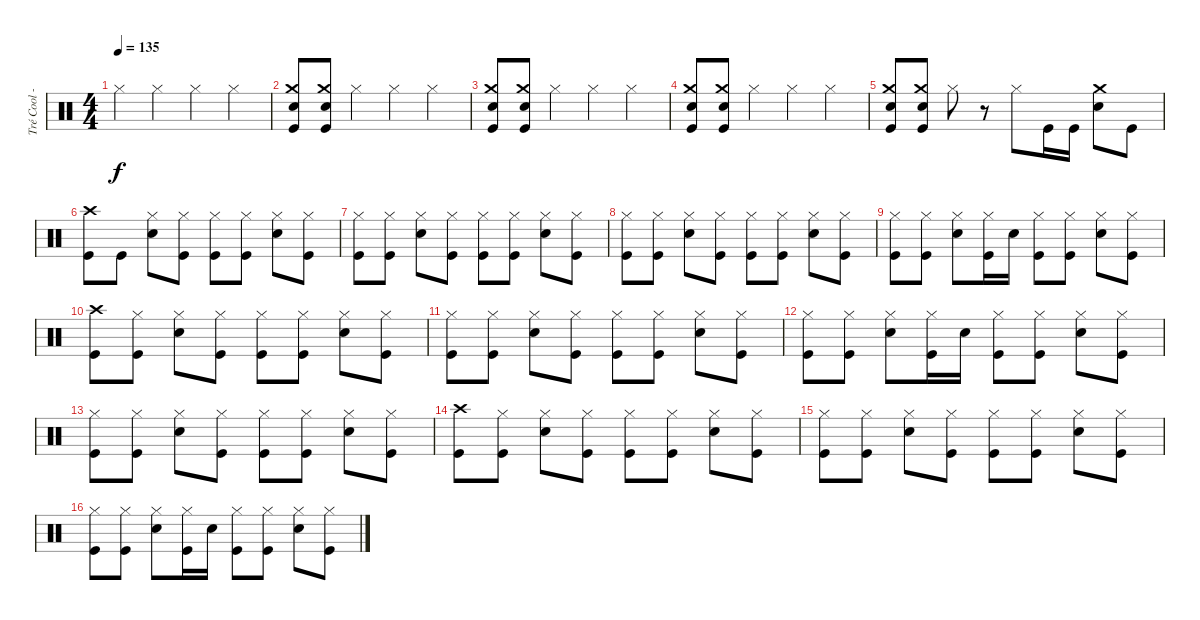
\track ("Tré Cool - Drums" "Tré Cool -") {instrument percussion}
\staff {score}
\articulation defaults
\ts (4 4)
\tempo 135
\clef neutral
\ks c "Hi-Hat (closed)".4{dy f} "Hi-Hat (closed)".4 "Hi-Hat (closed)".4 "Hi-Hat (closed)".4
|
("Electric Snare (hit)" "Crash medium (hit)" "Kick (hit)").8 ("Electric Snare (hit)" "Crash medium (hit)" "Kick (hit)").8 "Hi-Hat (closed)".4 "Hi-Hat (closed)".4 "Hi-Hat (closed)".4 |
("Electric Snare (hit)" "Crash medium (hit)" "Kick (hit)").8 ("Electric Snare (hit)" "Crash medium (hit)" "Kick (hit)").8 "Hi-Hat (closed)".4 "Hi-Hat (closed)".4 "Hi-Hat (closed)".4 |
("Electric Snare (hit)" "Crash medium (hit)" "Kick (hit)").8 ("Electric Snare (hit)" "Crash medium (hit)" "Kick (hit)").8 "Hi-Hat (closed)".4 "Hi-Hat (closed)".4 "Hi-Hat (closed)".4 |
("Electric Snare (hit)" "Crash medium (hit)" "Kick (hit)").8 ("Electric Snare (hit)" "Crash medium (hit)" "Kick (hit)").8 "Hi-Hat (closed)".8 r.8 "Hi-Hat (closed)".8 "Kick (hit)".16 "Kick (hit)".16 ("Crash medium (hit)" "Electric Snare (hit)").8 "Kick (hit)".8 |
("Crash high (hit)" "Kick (hit)").8 "Kick (hit)".8 ("Hi-Hat (closed)" "Electric Snare (hit)").8 ("Hi-Hat (closed)" "Kick (hit)").8 ("Hi-Hat (closed)" "Kick (hit)").8 ("Hi-Hat (closed)" "Kick (hit)").8 ("Hi-Hat (closed)" "Electric Snare (hit)").8 ("Hi-Hat (closed)" "Kick (hit)").8 |
("Hi-Hat (closed)" "Kick (hit)").8 ("Hi-Hat (closed)" "Kick (hit)").8 ("Hi-Hat (closed)" "Electric Snare (hit)").8 ("Hi-Hat (closed)" "Kick (hit)").8 ("Hi-Hat (closed)" "Kick (hit)").8 ("Hi-Hat (closed)" "Kick (hit)").8 ("Hi-Hat (closed)" "Electric Snare (hit)").8 ("Hi-Hat (closed)" "Kick (hit)").8 |
("Hi-Hat (closed)" "Kick (hit)").8 ("Hi-Hat (closed)" "Kick (hit)").8 ("Hi-Hat (closed)" "Electric Snare (hit)").8 ("Hi-Hat (closed)" "Kick (hit)").8 ("Hi-Hat (closed)" "Kick (hit)").8 ("Hi-Hat (closed)" "Kick (hit)").8 ("Hi-Hat (closed)" "Electric Snare (hit)").8 ("Hi-Hat (closed)" "Kick (hit)").8 |
("Hi-Hat (closed)" "Kick (hit)").8 ("Hi-Hat (closed)" "Kick (hit)").8 ("Hi-Hat (closed)" "Electric Snare (hit)").8 ("Hi-Hat (closed)" "Kick (hit)").16 "Electric Snare (hit)".16 ("Hi-Hat (closed)" "Kick (hit)").8 ("Hi-Hat (closed)" "Kick (hit)").8 ("Hi-Hat (closed)" "Electric Snare (hit)").8 ("Hi-Hat (closed)" "Kick (hit)").8 |
("Crash high (hit)" "Kick (hit)").8 ("Hi-Hat (closed)" "Kick (hit)").8 ("Hi-Hat (closed)" "Electric Snare (hit)").8 ("Hi-Hat (closed)" "Kick (hit)").8 ("Hi-Hat (closed)" "Kick (hit)").8 ("Hi-Hat (closed)" "Kick (hit)").8 ("Hi-Hat (closed)" "Electric Snare (hit)").8 ("Hi-Hat (closed)" "Kick (hit)").8 |
("Hi-Hat (closed)" "Kick (hit)").8 ("Hi-Hat (closed)" "Kick (hit)").8 ("Hi-Hat (closed)" "Electric Snare (hit)").8 ("Hi-Hat (closed)" "Kick (hit)").8 ("Hi-Hat (closed)" "Kick (hit)").8 ("Hi-Hat (closed)" "Kick (hit)").8 ("Hi-Hat (closed)" "Electric Snare (hit)").8 ("Hi-Hat (closed)" "Kick (hit)").8 |
("Hi-Hat (closed)" "Kick (hit)").8 ("Hi-Hat (closed)" "Kick (hit)").8 ("Hi-Hat (closed)" "Electric Snare (hit)").8 ("Hi-Hat (closed)" "Kick (hit)").16 "Electric Snare (hit)".16 ("Hi-Hat (closed)" "Kick (hit)").8 ("Hi-Hat (closed)" "Kick (hit)").8 ("Hi-Hat (closed)" "Electric Snare (hit)").8 ("Hi-Hat (closed)" "Kick (hit)").8 |
("Hi-Hat (closed)" "Kick (hit)").8 ("Hi-Hat (closed)" "Kick (hit)").8 ("Hi-Hat (closed)" "Electric Snare (hit)").8 ("Hi-Hat (closed)" "Kick (hit)").8 ("Hi-Hat (closed)" "Kick (hit)").8 ("Hi-Hat (closed)" "Kick (hit)").8 ("Hi-Hat (closed)" "Electric Snare (hit)").8 ("Hi-Hat (closed)" "Kick (hit)").8 |
("Crash high (hit)" "Kick (hit)").8 ("Hi-Hat (closed)" "Kick (hit)").8 ("Hi-Hat (closed)" "Electric Snare (hit)").8 ("Hi-Hat (closed)" "Kick (hit)").8 ("Hi-Hat (closed)" "Kick (hit)").8 ("Hi-Hat (closed)" "Kick (hit)").8 ("Hi-Hat (closed)" "Electric Snare (hit)").8 ("Hi-Hat (closed)" "Kick (hit)").8 |
("Hi-Hat (closed)" "Kick (hit)").8 ("Hi-Hat (closed)" "Kick (hit)").8 ("Hi-Hat (closed)" "Electric Snare (hit)").8 ("Hi-Hat (closed)" "Kick (hit)").8 ("Hi-Hat (closed)" "Kick (hit)").8 ("Hi-Hat (closed)" "Kick (hit)").8 ("Hi-Hat (closed)" "Electric Snare (hit)").8 ("Hi-Hat (closed)" "Kick (hit)").8 |
("Hi-Hat (closed)" "Kick (hit)").8 ("Hi-Hat (closed)" "Kick (hit)").8 ("Hi-Hat (closed)" "Electric Snare (hit)").8 ("Hi-Hat (closed)" "Kick (hit)").16 "Electric Snare (hit)".16 ("Hi-Hat (closed)" "Kick (hit)").8 ("Hi-Hat (closed)" "Kick (hit)").8 ("Hi-Hat (closed)" "Electric Snare (hit)").8 ("Hi-Hat (closed)" "Kick (hit)").8
